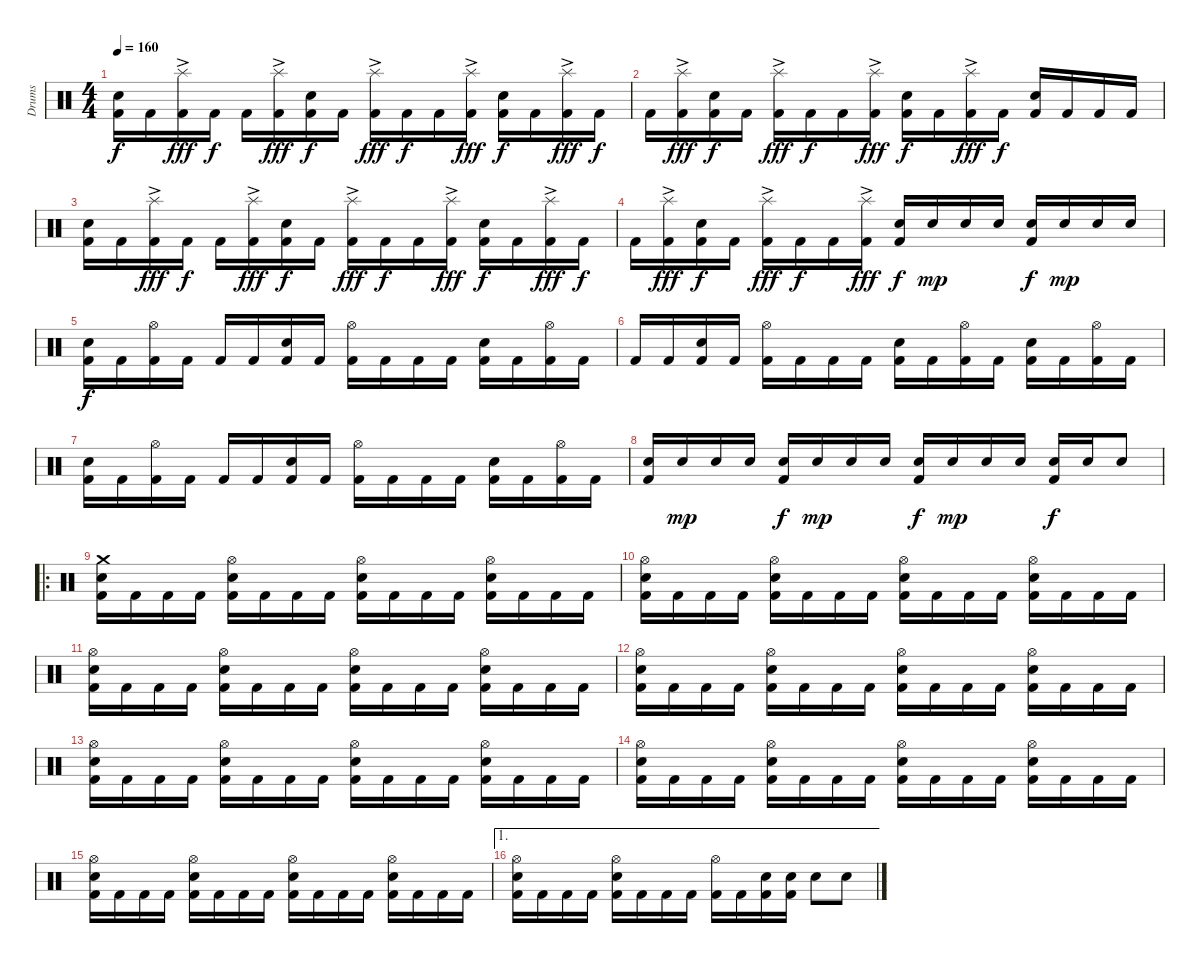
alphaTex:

\track ("Drums" "Drums") {instrument percussion}
\staff {score}
\articulation defaults
\ts (4 4)
\tempo 160
\clef neutral
\ks c
("Snare (hit) 2" "Kick (hit) 2").16{dy f} "Kick (hit) 2".16 ("Splash (hit)"{ac} "Kick (hit) 2").16{dy fff} "Kick (hit) 2".16{dy f} "Kick (hit) 2".16 ("Splash (hit)"{ac} "Kick (hit) 2").16{dy fff} ("Snare (hit) 2" "Kick (hit) 2").16{dy f} "Kick (hit) 2".16 ("Splash (hit)"{ac} "Kick (hit) 2").16{dy fff} "Kick (hit) 2".16{dy f} "Kick (hit) 2".16 ("Splash (hit)"{ac} "Kick (hit) 2").16{dy fff} ("Snare (hit) 2" "Kick (hit) 2").16{dy f} "Kick (hit) 2".16 ("Splash (hit)"{ac} "Kick (hit) 2").16{dy fff} "Kick (hit) 2".16{dy f} |
"Kick (hit) 2".16 ("Splash (hit)"{ac} "Kick (hit) 2").16{dy fff} ("Snare (hit) 2" "Kick (hit) 2").16{dy f} "Kick (hit) 2".16 ("Splash (hit)"{ac} "Kick (hit) 2").16{dy fff} "Kick (hit) 2".16{dy f} "Kick (hit) 2".16 ("Splash (hit)"{ac} "Kick (hit) 2").16{dy fff} ("Snare (hit) 2" "Kick (hit) 2").16{dy f} "Kick (hit) 2".16 ("Splash (hit)"{ac} "Kick (hit) 2").16{dy fff} "Kick (hit) 2".16{dy f} ("Snare (hit) 2" "Kick (hit) 2").16 "Kick (hit) 2".16 "Kick (hit) 2".16 "Kick (hit) 2".16 |
("Snare (hit) 2" "Kick (hit) 2").16 "Kick (hit) 2".16 ("Splash (hit)"{ac} "Kick (hit) 2").16{dy fff} "Kick (hit) 2".16{dy f} "Kick (hit) 2".16 ("Splash (hit)"{ac} "Kick (hit) 2").16{dy fff} ("Snare (hit) 2" "Kick (hit) 2").16{dy f} "Kick (hit) 2".16 ("Splash (hit)"{ac} "Kick (hit) 2").16{dy fff} "Kick (hit) 2".16{dy f} "Kick (hit) 2".16 ("Splash (hit)"{ac} "Kick (hit) 2").16{dy fff} ("Snare (hit) 2" "Kick (hit) 2").16{dy f} "Kick (hit) 2".16 ("Splash (hit)"{ac} "Kick (hit) 2").16{dy fff} "Kick (hit) 2".16{dy f} |
"Kick (hit) 2".16 ("Splash (hit)"{ac} "Kick (hit) 2").16{dy fff} ("Snare (hit) 2" "Kick (hit) 2").16{dy f} "Kick (hit) 2".16 ("Splash (hit)"{ac} "Kick (hit) 2").16{dy fff} "Kick (hit) 2".16{dy f} "Kick (hit) 2".16 ("Splash (hit)"{ac} "Kick (hit) 2").16{dy fff} ("Snare (hit) 2" "Kick (hit) 2").16{dy f} "Snare (hit) 2".16{dy mp} "Snare (hit) 2".16 "Snare (hit) 2".16 ("Snare (hit) 2" "Kick (hit) 2").16{dy f} "Snare (hit) 2".16{dy mp} "Snare (hit) 2".16 "Snare (hit) 2".16 |
("Snare (hit) 2" "Kick (hit) 2").16{dy f} "Kick (hit) 2".16 ("Hi-Hat (open)" "Kick (hit) 2").16 "Kick (hit) 2".16 "Kick (hit) 2".16 "Kick (hit) 2".16 ("Snare (hit) 2" "Kick (hit) 2").16 "Kick (hit) 2".16 ("Hi-Hat (open)" "Kick (hit) 2").16 "Kick (hit) 2".16 "Kick (hit) 2".16 "Kick (hit) 2".16 ("Snare (hit) 2" "Kick (hit) 2").16 "Kick (hit) 2".16 ("Hi-Hat (open)" "Kick (hit) 2").16 "Kick (hit) 2".16 |
"Kick (hit) 2".16 "Kick (hit) 2".16 ("Snare (hit) 2" "Kick (hit) 2").16 "Kick (hit) 2".16 ("Hi-Hat (open)" "Kick (hit) 2").16 "Kick (hit) 2".16 "Kick (hit) 2".16 "Kick (hit) 2".16 ("Snare (hit) 2" "Kick (hit) 2").16 "Kick (hit) 2".16 ("Hi-Hat (open)" "Kick (hit) 2").16 "Kick (hit) 2".16 ("Snare (hit) 2" "Kick (hit) 2").16 "Kick (hit) 2".16 ("Hi-Hat (open)" "Kick (hit) 2").16 "Kick (hit) 2".16 |
("Snare (hit) 2" "Kick (hit) 2").16 "Kick (hit) 2".16 ("Hi-Hat (open)" "Kick (hit) 2").16 "Kick (hit) 2".16 "Kick (hit) 2".16 "Kick (hit) 2".16 ("Snare (hit) 2" "Kick (hit) 2").16 "Kick (hit) 2".16 ("Hi-Hat (open)" "Kick (hit) 2").16 "Kick (hit) 2".16 "Kick (hit) 2".16 "Kick (hit) 2".16 ("Snare (hit) 2" "Kick (hit) 2").16 "Kick (hit) 2".16 ("Hi-Hat (open)" "Kick (hit) 2").16 "Kick (hit) 2".16 |
("Snare (hit) 2" "Kick (hit) 2").16 "Snare (hit) 2".16{dy mp} "Snare (hit) 2".16 "Snare (hit) 2".16 ("Snare (hit) 2" "Kick (hit) 2").16{dy f} "Snare (hit) 2".16{dy mp} "Snare (hit) 2".16 "Snare (hit) 2".16 ("Snare (hit) 2" "Kick (hit) 2").16{dy f} "Snare (hit) 2".16{dy mp} "Snare (hit) 2".16 "Snare (hit) 2".16 ("Snare (hit) 2" "Kick (hit) 2").16{dy f} "Snare (hit) 2".16 "Snare (hit) 2".8 |
\ro
("Crash medium (hit)" "Snare (hit) 2" "Kick (hit) 2").16 "Kick (hit) 2".16 "Kick (hit) 2".16 "Kick (hit) 2".16 ("Hi-Hat (open)" "Snare (hit) 2" "Kick (hit) 2").16 "Kick (hit) 2".16 "Kick (hit) 2".16 "Kick (hit) 2".16 ("Hi-Hat (open)" "Snare (hit) 2" "Kick (hit) 2").16 "Kick (hit) 2".16 "Kick (hit) 2".16 "Kick (hit) 2".16 ("Hi-Hat (open)" "Snare (hit) 2" "Kick (hit) 2").16 "Kick (hit) 2".16 "Kick (hit) 2".16 "Kick (hit) 2".16 |
("Hi-Hat (open)" "Snare (hit) 2" "Kick (hit) 2").16 "Kick (hit) 2".16 "Kick (hit) 2".16 "Kick (hit) 2".16 ("Hi-Hat (open)" "Snare (hit) 2" "Kick (hit) 2").16 "Kick (hit) 2".16 "Kick (hit) 2".16 "Kick (hit) 2".16 ("Hi-Hat (open)" "Snare (hit) 2" "Kick (hit) 2").16 "Kick (hit) 2".16 "Kick (hit) 2".16 "Kick (hit) 2".16 ("Hi-Hat (open)" "Snare (hit) 2" "Kick (hit) 2").16 "Kick (hit) 2".16 "Kick (hit) 2".16 "Kick (hit) 2".16 |
("Hi-Hat (open)" "Snare (hit) 2" "Kick (hit) 2").16 "Kick (hit) 2".16 "Kick (hit) 2".16 "Kick (hit) 2".16 ("Hi-Hat (open)" "Snare (hit) 2" "Kick (hit) 2").16 "Kick (hit) 2".16 "Kick (hit) 2".16 "Kick (hit) 2".16 ("Hi-Hat (open)" "Snare (hit) 2" "Kick (hit) 2").16 "Kick (hit) 2".16 "Kick (hit) 2".16 "Kick (hit) 2".16 ("Hi-Hat (open)" "Snare (hit) 2" "Kick (hit) 2").16 "Kick (hit) 2".16 "Kick (hit) 2".16 "Kick (hit) 2".16 |
("Hi-Hat (open)" "Snare (hit) 2" "Kick (hit) 2").16 "Kick (hit) 2".16 "Kick (hit) 2".16 "Kick (hit) 2".16 ("Hi-Hat (open)" "Snare (hit) 2" "Kick (hit) 2").16 "Kick (hit) 2".16 "Kick (hit) 2".16 "Kick (hit) 2".16 ("Hi-Hat (open)" "Snare (hit) 2" "Kick (hit) 2").16 "Kick (hit) 2".16 "Kick (hit) 2".16 "Kick (hit) 2".16 ("Hi-Hat (open)" "Snare (hit) 2" "Kick (hit) 2").16 "Kick (hit) 2".16 "Kick (hit) 2".16 "Kick (hit) 2".16 |
("Hi-Hat (open)" "Snare (hit) 2" "Kick (hit) 2").16 "Kick (hit) 2".16 "Kick (hit) 2".16 "Kick (hit) 2".16 ("Hi-Hat (open)" "Snare (hit) 2" "Kick (hit) 2").16 "Kick (hit) 2".16 "Kick (hit) 2".16 "Kick (hit) 2".16 ("Hi-Hat (open)" "Snare (hit) 2" "Kick (hit) 2").16 "Kick (hit) 2".16 "Kick (hit) 2".16 "Kick (hit) 2".16 ("Hi-Hat (open)" "Snare (hit) 2" "Kick (hit) 2").16 "Kick (hit) 2".16 "Kick (hit) 2".16 "Kick (hit) 2".16 |
("Hi-Hat (open)" "Snare (hit) 2" "Kick (hit) 2").16 "Kick (hit) 2".16 "Kick (hit) 2".16 "Kick (hit) 2".16 ("Hi-Hat (open)" "Snare (hit) 2" "Kick (hit) 2").16 "Kick (hit) 2".16 "Kick (hit) 2".16 "Kick (hit) 2".16 ("Hi-Hat (open)" "Snare (hit) 2" "Kick (hit) 2").16 "Kick (hit) 2".16 "Kick (hit) 2".16 "Kick (hit) 2".16 ("Hi-Hat (open)" "Snare (hit) 2" "Kick (hit) 2").16 "Kick (hit) 2".16 "Kick (hit) 2".16 "Kick (hit) 2".16 |
("Hi-Hat (open)" "Snare (hit) 2" "Kick (hit) 2").16 "Kick (hit) 2".16 "Kick (hit) 2".16 "Kick (hit) 2".16 ("Hi-Hat (open)" "Snare (hit) 2" "Kick (hit) 2").16 "Kick (hit) 2".16 "Kick (hit) 2".16 "Kick (hit) 2".16 ("Hi-Hat (open)" "Snare (hit) 2" "Kick (hit) 2").16 "Kick (hit) 2".16 "Kick (hit) 2".16 "Kick (hit) 2".16 ("Hi-Hat (open)" "Snare (hit) 2" "Kick (hit) 2").16 "Kick (hit) 2".16 "Kick (hit) 2".16 "Kick (hit) 2".16 |
\ae 1
("Hi-Hat (open)" "Snare (hit) 2" "Kick (hit) 2").16 "Kick (hit) 2".16 "Kick (hit) 2".16 "Kick (hit) 2".16 ("Hi-Hat (open)" "Snare (hit) 2" "Kick (hit) 2").16 "Kick (hit) 2".16 "Kick (hit) 2".16 "Kick (hit) 2".16 ("Hi-Hat (open)" "Kick (hit) 2").16 "Kick (hit) 2".16 ("Snare (hit) 2" "Kick (hit) 2").16 ("Snare (hit) 2" "Kick (hit) 2").16 "Snare (hit) 2".8 "Snare (hit) 2".8
